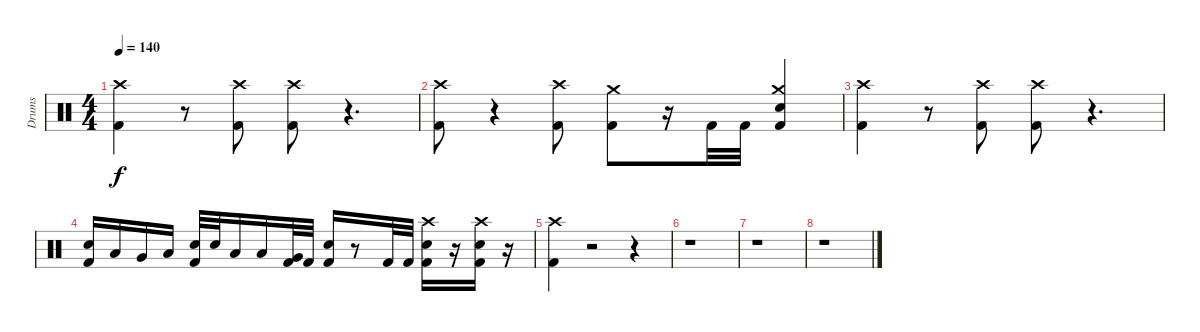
\track ("Drums" "Drums") {instrument percussion}
\staff {score}
\articulation defaults
\ts (4 4)
\tempo 140
\clef neutral
\ks c
("Crash high (hit)" "Kick (hit) 2").4{dy f} r.8 ("Crash high (hit)" "Kick (hit) 2").8 ("Crash high (hit)" "Kick (hit) 2").8 r.4{d} |
("Crash high (hit)" "Kick (hit) 2").8 r.4 ("Crash high (hit)" "Kick (hit) 2").8 ("Crash medium (hit)" "Kick (hit) 2").8 r.16 "Kick (hit) 2".32 "Kick (hit) 2".32 ("Electric Snare (hit)" "Kick (hit) 2" "Crash medium (hit)").4 |
("Crash high (hit)" "Kick (hit) 2").4 r.8 ("Crash high (hit)" "Kick (hit) 2").8 ("Crash high (hit)" "Kick (hit) 2").8 r.4{d} |
("Kick (hit) 2" "Electric Snare (hit)").16 "Low Tom (hit)".16 "Very Low Tom (hit)".16 "Low Tom (hit)".16 ("Kick (hit) 2" "Electric Snare (hit)").32 "Electric Snare (hit)".32 "Low Tom (hit)".16 "Low Tom (hit)".16 ("Kick (hit) 2" "Very Low Tom (hit)").32 "Kick (hit) 2".32 ("Kick (hit) 2" "Electric Snare (hit)").16 r.8 "Kick (hit) 2".32 "Kick (hit) 2".32 ("Kick (hit) 2" "Crash high (hit)" "Electric Snare (hit)").16 r.16 ("Crash high (hit)" "Electric Snare (hit)" "Kick (hit) 2").16 r.16 |
("Crash high (hit)" "Kick (hit) 2").4 r.2 r.4 |
r.1 |
r.1 |
r.1
